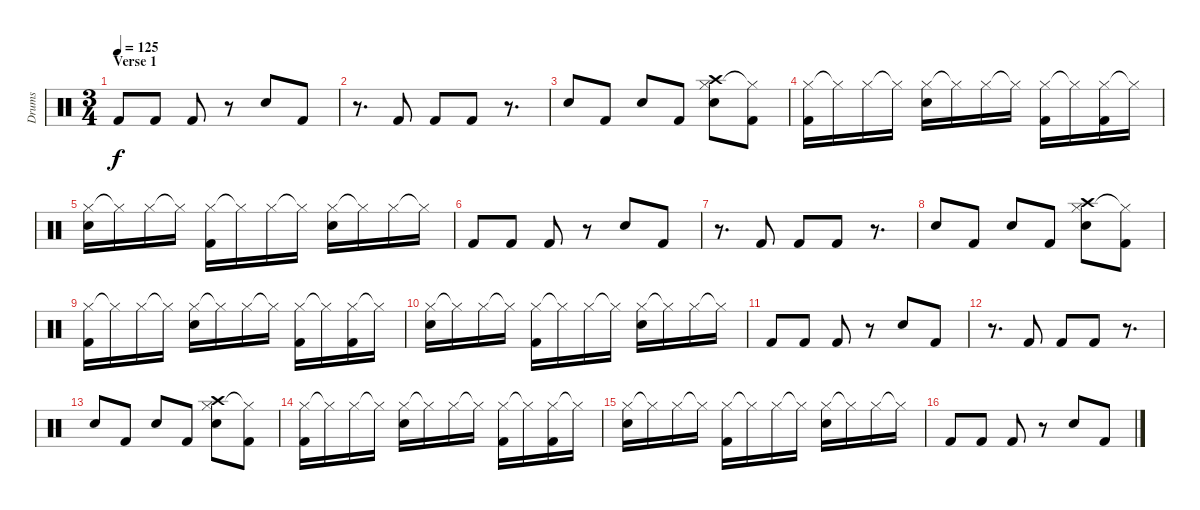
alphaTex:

\track ("Drums" "Drums") {instrument percussion}
\staff {score}
\articulation defaults
\ts (3 4)
\section ("" "Verse 1")
\tempo 125
\clef neutral
\ks c "Kick (hit) 2".8{dy f} "Kick (hit) 2".8 "Kick (hit) 2".8
r.8 "Snare (hit) 2".8 "Kick (hit) 2".8 |
r.8{d} "Kick (hit) 2".8 "Kick (hit) 2".8 "Kick (hit) 2".8 r.8{d} |
"Snare (hit) 2".8 "Kick (hit) 2".8 "Snare (hit) 2".8 "Kick (hit) 2".8 ("Hi-Hat (closed)" "Snare (hit) 2" "Crash high (hit)").8 ("Hi-Hat (closed)"{t} "Kick (hit) 2").8 |
("Hi-Hat (closed)" "Kick (hit) 2").16 "Hi-Hat (closed)"{t}.16 "Hi-Hat (closed)".16 "Hi-Hat (closed)"{t}.16 ("Hi-Hat (closed)" "Snare (hit) 2").16 "Hi-Hat (closed)"{t}.16 "Hi-Hat (closed)".16 "Hi-Hat (closed)"{t}.16 ("Hi-Hat (closed)" "Kick (hit) 2").16 "Hi-Hat (closed)"{t}.16 ("Hi-Hat (closed)" "Kick (hit) 2").16 "Hi-Hat (closed)"{t}.16 |
("Hi-Hat (closed)" "Snare (hit) 2").16 "Hi-Hat (closed)"{t}.16 "Hi-Hat (closed)".16 "Hi-Hat (closed)"{t}.16 ("Hi-Hat (closed)" "Kick (hit) 2").16 "Hi-Hat (closed)"{t}.16 "Hi-Hat (closed)".16 "Hi-Hat (closed)"{t}.16 ("Hi-Hat (closed)" "Snare (hit) 2").16 "Hi-Hat (closed)"{t}.16 "Hi-Hat (closed)".16 "Hi-Hat (closed)"{t}.16 |
"Kick (hit) 2".8 "Kick (hit) 2".8 "Kick (hit) 2".8 r.8 "Snare (hit) 2".8 "Kick (hit) 2".8 |
r.8{d} "Kick (hit) 2".8 "Kick (hit) 2".8 "Kick (hit) 2".8 r.8{d} |
"Snare (hit) 2".8 "Kick (hit) 2".8 "Snare (hit) 2".8 "Kick (hit) 2".8 ("Hi-Hat (closed)" "Snare (hit) 2" "Crash high (hit)").8 ("Hi-Hat (closed)"{t} "Kick (hit) 2").8 |
("Hi-Hat (closed)" "Kick (hit) 2").16 "Hi-Hat (closed)"{t}.16 "Hi-Hat (closed)".16 "Hi-Hat (closed)"{t}.16 ("Hi-Hat (closed)" "Snare (hit) 2").16 "Hi-Hat (closed)"{t}.16 "Hi-Hat (closed)".16 "Hi-Hat (closed)"{t}.16 ("Hi-Hat (closed)" "Kick (hit) 2").16 "Hi-Hat (closed)"{t}.16 ("Hi-Hat (closed)" "Kick (hit) 2").16 "Hi-Hat (closed)"{t}.16 |
("Hi-Hat (closed)" "Snare (hit) 2").16 "Hi-Hat (closed)"{t}.16 "Hi-Hat (closed)".16 "Hi-Hat (closed)"{t}.16 ("Hi-Hat (closed)" "Kick (hit) 2").16 "Hi-Hat (closed)"{t}.16 "Hi-Hat (closed)".16 "Hi-Hat (closed)"{t}.16 ("Hi-Hat (closed)" "Snare (hit) 2").16 "Hi-Hat (closed)"{t}.16 "Hi-Hat (closed)".16 "Hi-Hat (closed)"{t}.16 |
"Kick (hit) 2".8 "Kick (hit) 2".8 "Kick (hit) 2".8 r.8 "Snare (hit) 2".8 "Kick (hit) 2".8 |
r.8{d} "Kick (hit) 2".8 "Kick (hit) 2".8 "Kick (hit) 2".8 r.8{d} |
"Snare (hit) 2".8 "Kick (hit) 2".8 "Snare (hit) 2".8 "Kick (hit) 2".8 ("Hi-Hat (closed)" "Snare (hit) 2" "Crash high (hit)").8 ("Hi-Hat (closed)"{t} "Kick (hit) 2").8 |
("Hi-Hat (closed)" "Kick (hit) 2").16 "Hi-Hat (closed)"{t}.16 "Hi-Hat (closed)".16 "Hi-Hat (closed)"{t}.16 ("Hi-Hat (closed)" "Snare (hit) 2").16 "Hi-Hat (closed)"{t}.16 "Hi-Hat (closed)".16 "Hi-Hat (closed)"{t}.16 ("Hi-Hat (closed)" "Kick (hit) 2").16 "Hi-Hat (closed)"{t}.16 ("Hi-Hat (closed)" "Kick (hit) 2").16 "Hi-Hat (closed)"{t}.16 |
("Hi-Hat (closed)" "Snare (hit) 2").16 "Hi-Hat (closed)"{t}.16 "Hi-Hat (closed)".16 "Hi-Hat (closed)"{t}.16 ("Hi-Hat (closed)" "Kick (hit) 2").16 "Hi-Hat (closed)"{t}.16 "Hi-Hat (closed)".16 "Hi-Hat (closed)"{t}.16 ("Hi-Hat (closed)" "Snare (hit) 2").16 "Hi-Hat (closed)"{t}.16 "Hi-Hat (closed)".16 "Hi-Hat (closed)"{t}.16 |
"Kick (hit) 2".8 "Kick (hit) 2".8 "Kick (hit) 2".8 r.8 "Snare (hit) 2".8 "Kick (hit) 2".8
